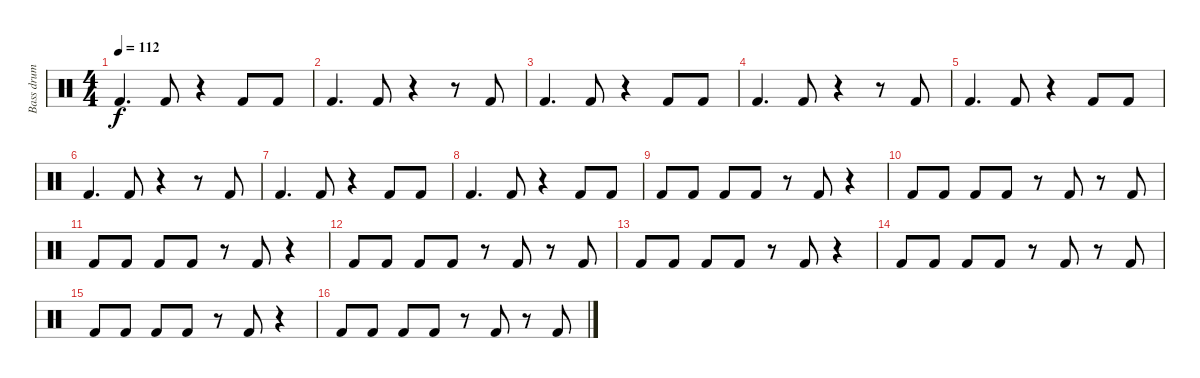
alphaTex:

\track ("Bass drum" "Bass drum") {instrument percussion}
\staff {score}
\articulation defaults
\ts (4 4)
\tempo 112
\clef neutral
\ks c "Kick (hit) 2".4{d dy f} "Kick (hit) 2".8
r.4 "Kick (hit) 2".8 "Kick (hit) 2".8 |
"Kick (hit) 2".4{d} "Kick (hit) 2".8 r.4 r.8 "Kick (hit) 2".8 |
"Kick (hit) 2".4{d} "Kick (hit) 2".8 r.4 "Kick (hit) 2".8 "Kick (hit) 2".8 |
"Kick (hit) 2".4{d} "Kick (hit) 2".8 r.4 r.8 "Kick (hit) 2".8 |
"Kick (hit) 2".4{d} "Kick (hit) 2".8 r.4 "Kick (hit) 2".8 "Kick (hit) 2".8 |
"Kick (hit) 2".4{d} "Kick (hit) 2".8 r.4 r.8 "Kick (hit) 2".8 |
"Kick (hit) 2".4{d} "Kick (hit) 2".8 r.4 "Kick (hit) 2".8 "Kick (hit) 2".8 |
"Kick (hit) 2".4{d} "Kick (hit) 2".8 r.4 "Kick (hit) 2".8 "Kick (hit) 2".8 |
"Kick (hit) 2".8 "Kick (hit) 2".8 "Kick (hit) 2".8 "Kick (hit) 2".8 r.8 "Kick (hit) 2".8 r.4 |
"Kick (hit) 2".8 "Kick (hit) 2".8 "Kick (hit) 2".8 "Kick (hit) 2".8 r.8 "Kick (hit) 2".8 r.8 "Kick (hit) 2".8 |
"Kick (hit) 2".8 "Kick (hit) 2".8 "Kick (hit) 2".8 "Kick (hit) 2".8 r.8 "Kick (hit) 2".8 r.4 |
"Kick (hit) 2".8 "Kick (hit) 2".8 "Kick (hit) 2".8 "Kick (hit) 2".8 r.8 "Kick (hit) 2".8 r.8 "Kick (hit) 2".8 |
"Kick (hit) 2".8 "Kick (hit) 2".8 "Kick (hit) 2".8 "Kick (hit) 2".8 r.8 "Kick (hit) 2".8 r.4 |
"Kick (hit) 2".8 "Kick (hit) 2".8 "Kick (hit) 2".8 "Kick (hit) 2".8 r.8 "Kick (hit) 2".8 r.8 "Kick (hit) 2".8 |
"Kick (hit) 2".8 "Kick (hit) 2".8 "Kick (hit) 2".8 "Kick (hit) 2".8 r.8 "Kick (hit) 2".8 r.4 |
"Kick (hit) 2".8 "Kick (hit) 2".8 "Kick (hit) 2".8 "Kick (hit) 2".8 r.8 "Kick (hit) 2".8 r.8 "Kick (hit) 2".8
